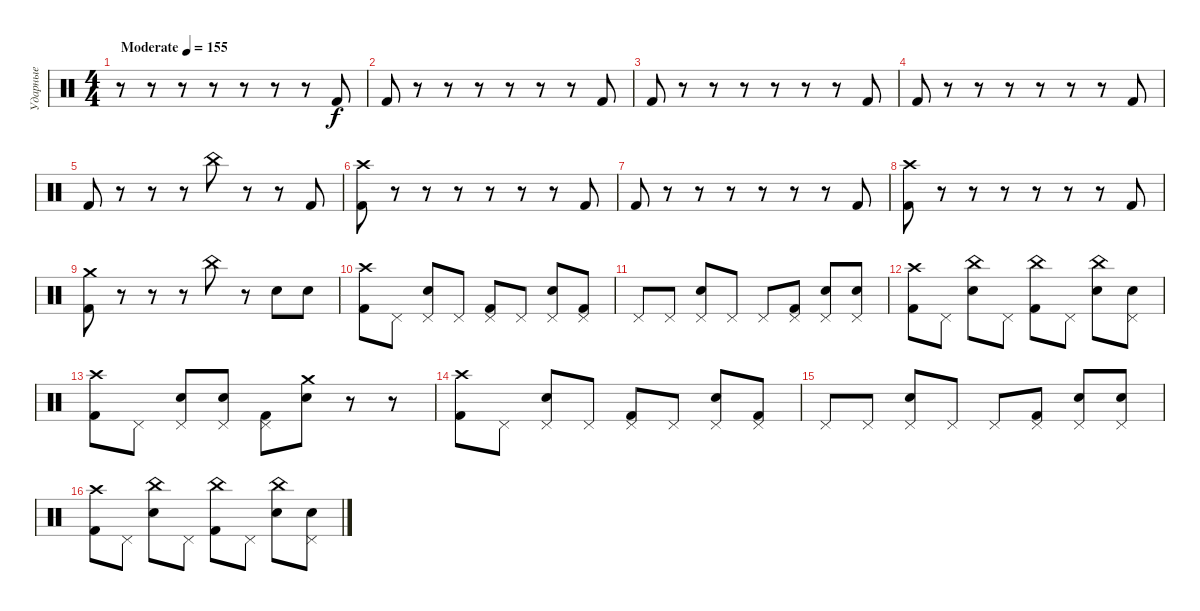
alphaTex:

\track ("Ударные" "Ударные") {instrument percussion}
\staff {score}
\articulation defaults
\ts (4 4)
\tempo (155 "Moderate")
\clef neutral
\ks c
r.8{dy f} r.8 r.8 r.8 r.8 r.8 r.8 "Kick (hit) 2".8 |
"Kick (hit) 2".8 r.8 r.8 r.8 r.8 r.8 r.8 "Kick (hit) 2".8 |
"Kick (hit) 2".8 r.8 r.8 r.8 r.8 r.8 r.8 "Kick (hit) 2".8 |
"Kick (hit) 2".8 r.8 r.8 r.8 r.8 r.8 r.8 "Kick (hit) 2".8 |
"Kick (hit) 2".8 r.8 r.8 r.8 "China (hit)".8 r.8 r.8 "Kick (hit) 2".8 |
("Crash high (hit)" "Kick (hit) 2").8 r.8 r.8 r.8 r.8 r.8 r.8 "Kick (hit) 2".8 |
"Kick (hit) 2".8 r.8 r.8 r.8 r.8 r.8 r.8 "Kick (hit) 2".8 |
("Crash high (hit)" "Kick (hit) 2").8 r.8 r.8 r.8 r.8 r.8 r.8 "Kick (hit) 2".8 |
("Crash medium (hit)" "Kick (hit) 2").8 r.8 r.8 r.8 "China (hit)".8 r.8 "Snare (hit) 2".8 "Snare (hit) 2".8 |
("Crash high (hit)" "Kick (hit) 2").8 "Pedal Hi-Hat (hit)".8 ("Pedal Hi-Hat (hit)" "Snare (hit) 2").8 "Pedal Hi-Hat (hit)".8 ("Pedal Hi-Hat (hit)" "Kick (hit) 2").8 "Pedal Hi-Hat (hit)".8 ("Pedal Hi-Hat (hit)" "Snare (hit) 2").8 ("Pedal Hi-Hat (hit)" "Kick (hit) 2").8 |
"Pedal Hi-Hat (hit)".8 "Pedal Hi-Hat (hit)".8 ("Pedal Hi-Hat (hit)" "Snare (hit) 2").8 "Pedal Hi-Hat (hit)".8 "Pedal Hi-Hat (hit)".8 ("Pedal Hi-Hat (hit)" "Kick (hit) 2").8 ("Pedal Hi-Hat (hit)" "Snare (hit) 2").8 ("Pedal Hi-Hat (hit)" "Snare (hit) 2").8 |
("Crash high (hit)" "Kick (hit) 2").8 "Pedal Hi-Hat (hit)".8 ("China (hit)" "Snare (hit) 2").8 "Pedal Hi-Hat (hit)".8 ("China (hit)" "Kick (hit) 2").8 "Pedal Hi-Hat (hit)".8 ("China (hit)" "Snare (hit) 2").8 ("Pedal Hi-Hat (hit)" "Snare (hit) 2").8 |
("Crash high (hit)" "Kick (hit) 2").8 "Pedal Hi-Hat (hit)".8 ("Pedal Hi-Hat (hit)" "Snare (hit) 2").8 ("Pedal Hi-Hat (hit)" "Snare (hit) 2").8 ("Pedal Hi-Hat (hit)" "Kick (hit) 2").8 ("Crash medium (hit)" "Snare (hit) 2").8 r.8 r.8 |
("Crash high (hit)" "Kick (hit) 2").8 "Pedal Hi-Hat (hit)".8 ("Pedal Hi-Hat (hit)" "Snare (hit) 2").8 "Pedal Hi-Hat (hit)".8 ("Pedal Hi-Hat (hit)" "Kick (hit) 2").8 "Pedal Hi-Hat (hit)".8 ("Pedal Hi-Hat (hit)" "Snare (hit) 2").8 ("Pedal Hi-Hat (hit)" "Kick (hit) 2").8 |
"Pedal Hi-Hat (hit)".8 "Pedal Hi-Hat (hit)".8 ("Pedal Hi-Hat (hit)" "Snare (hit) 2").8 "Pedal Hi-Hat (hit)".8 "Pedal Hi-Hat (hit)".8 ("Pedal Hi-Hat (hit)" "Kick (hit) 2").8 ("Pedal Hi-Hat (hit)" "Snare (hit) 2").8 ("Pedal Hi-Hat (hit)" "Snare (hit) 2").8 |
("Crash high (hit)" "Kick (hit) 2").8 "Pedal Hi-Hat (hit)".8 ("China (hit)" "Snare (hit) 2").8 "Pedal Hi-Hat (hit)".8 ("China (hit)" "Kick (hit) 2").8 "Pedal Hi-Hat (hit)".8 ("China (hit)" "Snare (hit) 2").8 ("Pedal Hi-Hat (hit)" "Snare (hit) 2").8
